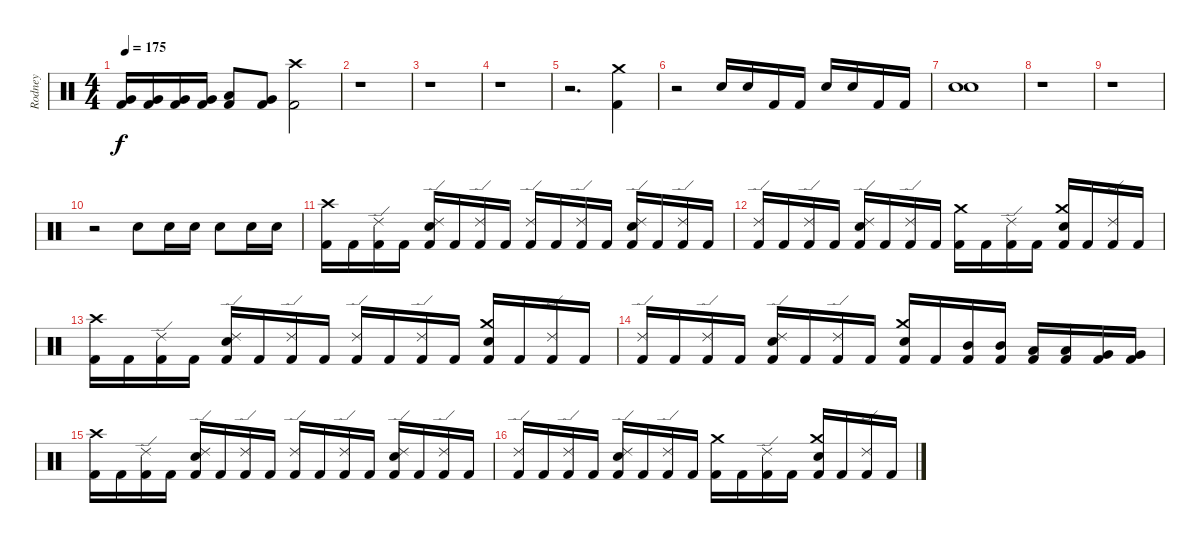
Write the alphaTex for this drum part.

\track ("Rodney" "Rodney") {instrument percussion}
\staff {score}
\articulation defaults
\ts (4 4)
\tempo 175
\clef neutral
\ks c
("Very Low Tom (hit)" "Kick (hit) 2").16{dy f} ("Very Low Tom (hit)" "Kick (hit) 2").16 ("Very Low Tom (hit)" "Kick (hit) 2").16 ("Very Low Tom (hit)" "Kick (hit) 2").16 ("Low Tom (hit)" "Kick (hit) 2").8 ("Very Low Tom (hit)" "Kick (hit) 2").8 ("Crash high (hit)" "Kick (hit) 2").2 |
r.1 |
r.1 |
r.1 |
r.2{d} ("Crash medium (hit)" "Kick (hit) 2").4 |
r.2 "Snare (hit) 2".16 "Snare (hit) 2".16 "Kick (hit) 2".16 "Kick (hit) 2".16 "Snare (hit) 2".16 "Snare (hit) 2".16 "Kick (hit) 2".16 "Kick (hit) 2".16 |
("Snare (hit) 2" "Snare (hit) 2").1{bd 120} |
r.1 |
r.1 |
r.2 "Snare (hit) 2".8 "Snare (hit) 2".16 "Snare (hit) 2".16 "Snare (hit) 2".8 "Snare (hit) 2".16 "Snare (hit) 2".16 |
("Crash high (hit)" "Kick (hit) 2").16 "Kick (hit) 2".16 ("Ride (edge) 2" "Kick (hit) 2").16 "Kick (hit) 2".16 ("Ride (edge) 2" "Snare (hit) 2" "Kick (hit) 2").16 "Kick (hit) 2".16 ("Ride (edge) 2" "Kick (hit) 2").16 "Kick (hit) 2".16 ("Ride (edge) 2" "Kick (hit) 2").16 "Kick (hit) 2".16 ("Ride (edge) 2" "Kick (hit) 2").16 "Kick (hit) 2".16 ("Ride (edge) 2" "Snare (hit) 2" "Kick (hit) 2").16 "Kick (hit) 2".16 ("Ride (edge) 2" "Kick (hit) 2").16 "Kick (hit) 2".16 |
("Ride (edge) 2" "Kick (hit) 2").16 "Kick (hit) 2".16 ("Ride (edge) 2" "Kick (hit) 2").16 "Kick (hit) 2".16 ("Ride (edge) 2" "Snare (hit) 2" "Kick (hit) 2").16 "Kick (hit) 2".16 ("Ride (edge) 2" "Kick (hit) 2").16 "Kick (hit) 2".16 ("Crash medium (hit)" "Kick (hit) 2").16 "Kick (hit) 2".16 ("Ride (edge) 2" "Kick (hit) 2").16 "Kick (hit) 2".16 ("Crash medium (hit)" "Snare (hit) 2" "Kick (hit) 2").16 "Kick (hit) 2".16 ("Ride (edge) 2" "Kick (hit) 2").16 "Kick (hit) 2".16 |
("Crash high (hit)" "Kick (hit) 2").16 "Kick (hit) 2".16 ("Ride (edge) 2" "Kick (hit) 2").16 "Kick (hit) 2".16 ("Ride (edge) 2" "Snare (hit) 2" "Kick (hit) 2").16 "Kick (hit) 2".16 ("Ride (edge) 2" "Kick (hit) 2").16 "Kick (hit) 2".16 ("Ride (edge) 2" "Kick (hit) 2").16 "Kick (hit) 2".16 ("Ride (edge) 2" "Kick (hit) 2").16 "Kick (hit) 2".16 ("Crash medium (hit)" "Snare (hit) 2" "Kick (hit) 2").16 "Kick (hit) 2".16 ("Ride (edge) 2" "Kick (hit) 2").16 "Kick (hit) 2".16 |
("Ride (edge) 2" "Kick (hit) 2").16 "Kick (hit) 2".16 ("Ride (edge) 2" "Kick (hit) 2").16 "Kick (hit) 2".16 ("Ride (edge) 2" "Snare (hit) 2" "Kick (hit) 2").16 "Kick (hit) 2".16 ("Ride (edge) 2" "Kick (hit) 2").16 "Kick (hit) 2".16 ("Crash medium (hit)" "Snare (hit) 2" "Kick (hit) 2").16 "Kick (hit) 2".16 ("Mid Tom (hit)" "Kick (hit) 2").16 ("Mid Tom (hit)" "Kick (hit) 2").16 ("Low Tom (hit)" "Kick (hit) 2").16 ("Low Tom (hit)" "Kick (hit) 2").16 ("Very Low Tom (hit)" "Kick (hit) 2").16 ("Very Low Tom (hit)" "Kick (hit) 2").16 |
("Crash high (hit)" "Kick (hit) 2").16 "Kick (hit) 2".16 ("Ride (edge) 2" "Kick (hit) 2").16 "Kick (hit) 2".16 ("Ride (edge) 2" "Snare (hit) 2" "Kick (hit) 2").16 "Kick (hit) 2".16 ("Ride (edge) 2" "Kick (hit) 2").16 "Kick (hit) 2".16 ("Ride (edge) 2" "Kick (hit) 2").16 "Kick (hit) 2".16 ("Ride (edge) 2" "Kick (hit) 2").16 "Kick (hit) 2".16 ("Ride (edge) 2" "Snare (hit) 2" "Kick (hit) 2").16 "Kick (hit) 2".16 ("Ride (edge) 2" "Kick (hit) 2").16 "Kick (hit) 2".16 |
("Ride (edge) 2" "Kick (hit) 2").16 "Kick (hit) 2".16 ("Ride (edge) 2" "Kick (hit) 2").16 "Kick (hit) 2".16 ("Ride (edge) 2" "Snare (hit) 2" "Kick (hit) 2").16 "Kick (hit) 2".16 ("Ride (edge) 2" "Kick (hit) 2").16 "Kick (hit) 2".16 ("Crash medium (hit)" "Kick (hit) 2").16 "Kick (hit) 2".16 ("Ride (edge) 2" "Kick (hit) 2").16 "Kick (hit) 2".16 ("Crash medium (hit)" "Snare (hit) 2" "Kick (hit) 2").16 "Kick (hit) 2".16 ("Ride (edge) 2" "Kick (hit) 2").16 "Kick (hit) 2".16
